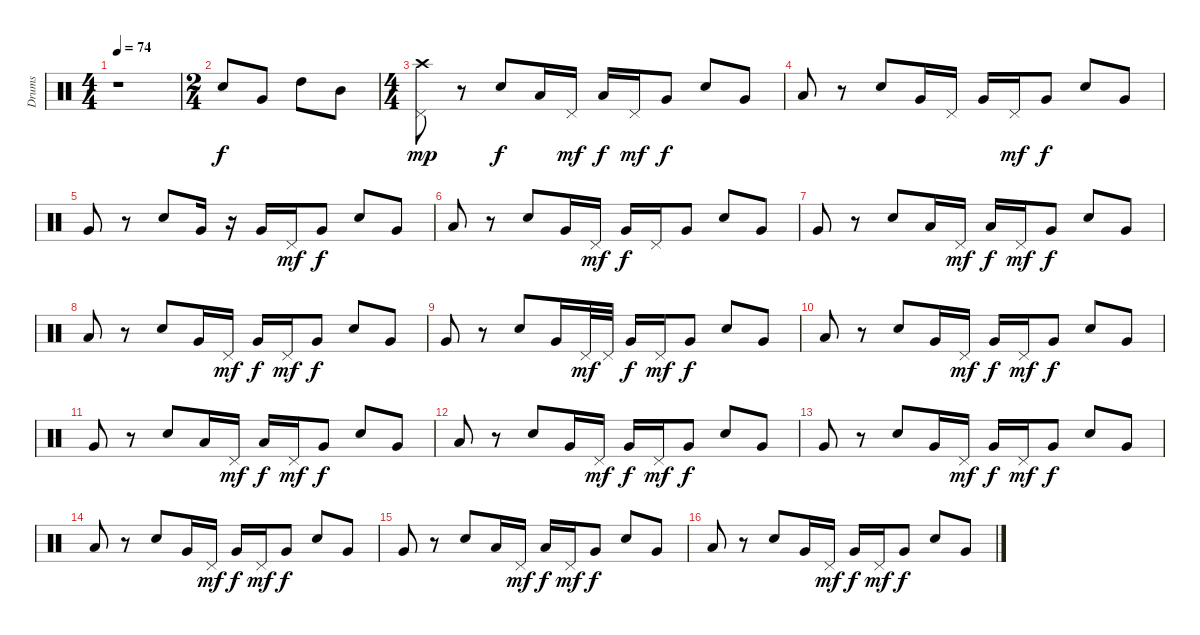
\track ("Drums" "Drums") {instrument percussion}
\staff {score}
\articulation defaults
\ts (4 4)
\tempo 74
\clef neutral
\ks c
r.1{dy f} |
\ts (2 4)
"Electric Snare (hit)".8 "Very Low Tom (hit)".8 "High Tom (hit)".8 "Mid Tom (hit)".8 |
\ts (4 4)
("Crash high (hit)" "Pedal Hi-Hat (hit)").8{dy mp} r.8 "Electric Snare (hit)".8{dy f} "Low Floor Tom (hit)".16 "Pedal Hi-Hat (hit)".16{dy mf} "Low Floor Tom (hit)".16{dy f} "Pedal Hi-Hat (hit)".16{dy mf} "Very Low Tom (hit)".8{dy f} "Electric Snare (hit)".8 "Very Low Tom (hit)".8 |
"Low Floor Tom (hit)".8 r.8 "Electric Snare (hit)".8 "Very Low Tom (hit)".16 "Pedal Hi-Hat (hit)".16 "Very Low Tom (hit)".16 "Pedal Hi-Hat (hit)".16{dy mf} "Very Low Tom (hit)".8{dy f} "Electric Snare (hit)".8 "Very Low Tom (hit)".8 |
"Very Low Tom (hit)".8 r.8 "Electric Snare (hit)".8 "Very Low Tom (hit)".16 r.16 "Very Low Tom (hit)".16 "Pedal Hi-Hat (hit)".16{dy mf} "Very Low Tom (hit)".8{dy f} "Electric Snare (hit)".8 "Very Low Tom (hit)".8 |
"Low Floor Tom (hit)".8 r.8 "Electric Snare (hit)".8 "Very Low Tom (hit)".16 "Pedal Hi-Hat (hit)".16{dy mf} "Very Low Tom (hit)".16{dy f} "Pedal Hi-Hat (hit)".16 "Very Low Tom (hit)".8 "Electric Snare (hit)".8 "Very Low Tom (hit)".8 |
"Very Low Tom (hit)".8 r.8 "Electric Snare (hit)".8 "Low Floor Tom (hit)".16 "Pedal Hi-Hat (hit)".16{dy mf} "Low Floor Tom (hit)".16{dy f} "Pedal Hi-Hat (hit)".16{dy mf} "Very Low Tom (hit)".8{dy f} "Electric Snare (hit)".8 "Very Low Tom (hit)".8 |
"Low Floor Tom (hit)".8 r.8 "Electric Snare (hit)".8 "Very Low Tom (hit)".16 "Pedal Hi-Hat (hit)".16{dy mf} "Very Low Tom (hit)".16{dy f} "Pedal Hi-Hat (hit)".16{dy mf} "Very Low Tom (hit)".8{dy f} "Electric Snare (hit)".8 "Very Low Tom (hit)".8 |
"Very Low Tom (hit)".8 r.8 "Electric Snare (hit)".8 "Very Low Tom (hit)".16 "Pedal Hi-Hat (hit)".32{dy mf} "Pedal Hi-Hat (hit)".32 "Very Low Tom (hit)".16{dy f} "Pedal Hi-Hat (hit)".16{dy mf} "Very Low Tom (hit)".8{dy f} "Electric Snare (hit)".8 "Very Low Tom (hit)".8 |
"Low Floor Tom (hit)".8 r.8 "Electric Snare (hit)".8 "Very Low Tom (hit)".16 "Pedal Hi-Hat (hit)".16{dy mf} "Very Low Tom (hit)".16{dy f} "Pedal Hi-Hat (hit)".16{dy mf} "Very Low Tom (hit)".8{dy f} "Electric Snare (hit)".8 "Very Low Tom (hit)".8 |
"Very Low Tom (hit)".8 r.8 "Electric Snare (hit)".8 "Low Floor Tom (hit)".16 "Pedal Hi-Hat (hit)".16{dy mf} "Low Floor Tom (hit)".16{dy f} "Pedal Hi-Hat (hit)".16{dy mf} "Very Low Tom (hit)".8{dy f} "Electric Snare (hit)".8 "Very Low Tom (hit)".8 |
"Low Floor Tom (hit)".8 r.8 "Electric Snare (hit)".8 "Very Low Tom (hit)".16 "Pedal Hi-Hat (hit)".16{dy mf} "Very Low Tom (hit)".16{dy f} "Pedal Hi-Hat (hit)".16{dy mf} "Very Low Tom (hit)".8{dy f} "Electric Snare (hit)".8 "Very Low Tom (hit)".8 |
"Very Low Tom (hit)".8 r.8 "Electric Snare (hit)".8 "Very Low Tom (hit)".16 "Pedal Hi-Hat (hit)".16{dy mf} "Very Low Tom (hit)".16{dy f} "Pedal Hi-Hat (hit)".16{dy mf} "Very Low Tom (hit)".8{dy f} "Electric Snare (hit)".8 "Very Low Tom (hit)".8 |
"Low Floor Tom (hit)".8 r.8 "Electric Snare (hit)".8 "Very Low Tom (hit)".16 "Pedal Hi-Hat (hit)".16{dy mf} "Very Low Tom (hit)".16{dy f} "Pedal Hi-Hat (hit)".16{dy mf} "Very Low Tom (hit)".8{dy f} "Electric Snare (hit)".8 "Very Low Tom (hit)".8 |
"Very Low Tom (hit)".8 r.8 "Electric Snare (hit)".8 "Low Floor Tom (hit)".16 "Pedal Hi-Hat (hit)".16{dy mf} "Low Floor Tom (hit)".16{dy f} "Pedal Hi-Hat (hit)".16{dy mf} "Very Low Tom (hit)".8{dy f} "Electric Snare (hit)".8 "Very Low Tom (hit)".8 |
"Low Floor Tom (hit)".8 r.8 "Electric Snare (hit)".8 "Very Low Tom (hit)".16 "Pedal Hi-Hat (hit)".16{dy mf} "Very Low Tom (hit)".16{dy f} "Pedal Hi-Hat (hit)".16{dy mf} "Very Low Tom (hit)".8{dy f} "Electric Snare (hit)".8 "Very Low Tom (hit)".8
